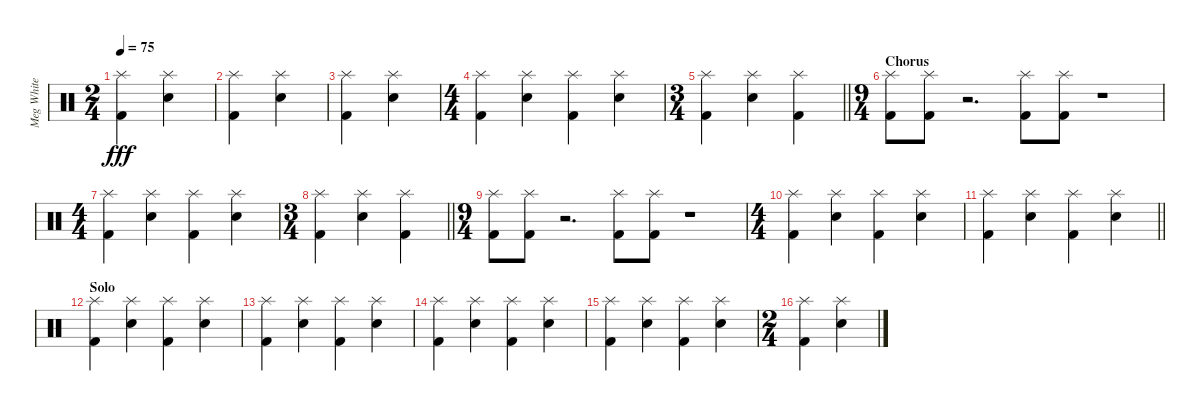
\track ("Meg White (Drums)" "Meg White ") {instrument percussion}
\staff {score}
\articulation defaults
\ts (2 4)
\tempo 75
\clef neutral
\ks c
("Kick (hit) 2" "Splash (hit)").4{dy fff} ("Electric Snare (hit)" "Splash (hit)").4 |
("Kick (hit) 2" "Splash (hit)").4 ("Electric Snare (hit)" "Splash (hit)").4 |
("Kick (hit) 2" "Splash (hit)").4 ("Electric Snare (hit)" "Splash (hit)").4 |
\ts (4 4)
("Kick (hit) 2" "Splash (hit)").4 ("Electric Snare (hit)" "Splash (hit)").4 ("Kick (hit) 2" "Splash (hit)").4 ("Electric Snare (hit)" "Splash (hit)").4 |
\ts (3 4)
\barLineRight lightlight
("Kick (hit) 2" "Splash (hit)").4 ("Electric Snare (hit)" "Splash (hit)").4 ("Kick (hit) 2" "Splash (hit)").4 |
\ts (9 4)
\section ("" "Chorus")
("Kick (hit) 2" "Splash (hit)").8 ("Kick (hit) 2" "Splash (hit)").8 r.2{d} ("Kick (hit) 2" "Splash (hit)").8 ("Kick (hit) 2" "Splash (hit)").8 r.1 |
\ts (4 4)
("Kick (hit) 2" "Splash (hit)").4 ("Electric Snare (hit)" "Splash (hit)").4 ("Kick (hit) 2" "Splash (hit)").4 ("Electric Snare (hit)" "Splash (hit)").4 |
\ts (3 4)
\barLineRight lightlight
("Kick (hit) 2" "Splash (hit)").4 ("Electric Snare (hit)" "Splash (hit)").4 ("Kick (hit) 2" "Splash (hit)").4 |
\ts (9 4)
("Kick (hit) 2" "Splash (hit)").8 ("Kick (hit) 2" "Splash (hit)").8 r.2{d} ("Kick (hit) 2" "Splash (hit)").8 ("Kick (hit) 2" "Splash (hit)").8 r.1 |
\ts (4 4)
("Kick (hit) 2" "Splash (hit)").4 ("Electric Snare (hit)" "Splash (hit)").4 ("Kick (hit) 2" "Splash (hit)").4 ("Electric Snare (hit)" "Splash (hit)").4 |
\barLineRight lightlight
("Kick (hit) 2" "Splash (hit)").4 ("Electric Snare (hit)" "Splash (hit)").4 ("Kick (hit) 2" "Splash (hit)").4 ("Electric Snare (hit)" "Splash (hit)").4 |
\section ("" "Solo")
("Kick (hit) 2" "Splash (hit)").4 ("Electric Snare (hit)" "Splash (hit)").4 ("Kick (hit) 2" "Splash (hit)").4 ("Electric Snare (hit)" "Splash (hit)").4 |
("Kick (hit) 2" "Splash (hit)").4 ("Electric Snare (hit)" "Splash (hit)").4 ("Kick (hit) 2" "Splash (hit)").4 ("Electric Snare (hit)" "Splash (hit)").4 |
("Kick (hit) 2" "Splash (hit)").4 ("Electric Snare (hit)" "Splash (hit)").4 ("Kick (hit) 2" "Splash (hit)").4 ("Electric Snare (hit)" "Splash (hit)").4 |
("Kick (hit) 2" "Splash (hit)").4 ("Electric Snare (hit)" "Splash (hit)").4 ("Kick (hit) 2" "Splash (hit)").4 ("Electric Snare (hit)" "Splash (hit)").4 |
\ts (2 4)
("Kick (hit) 2" "Splash (hit)").4 ("Electric Snare (hit)" "Splash (hit)").4
